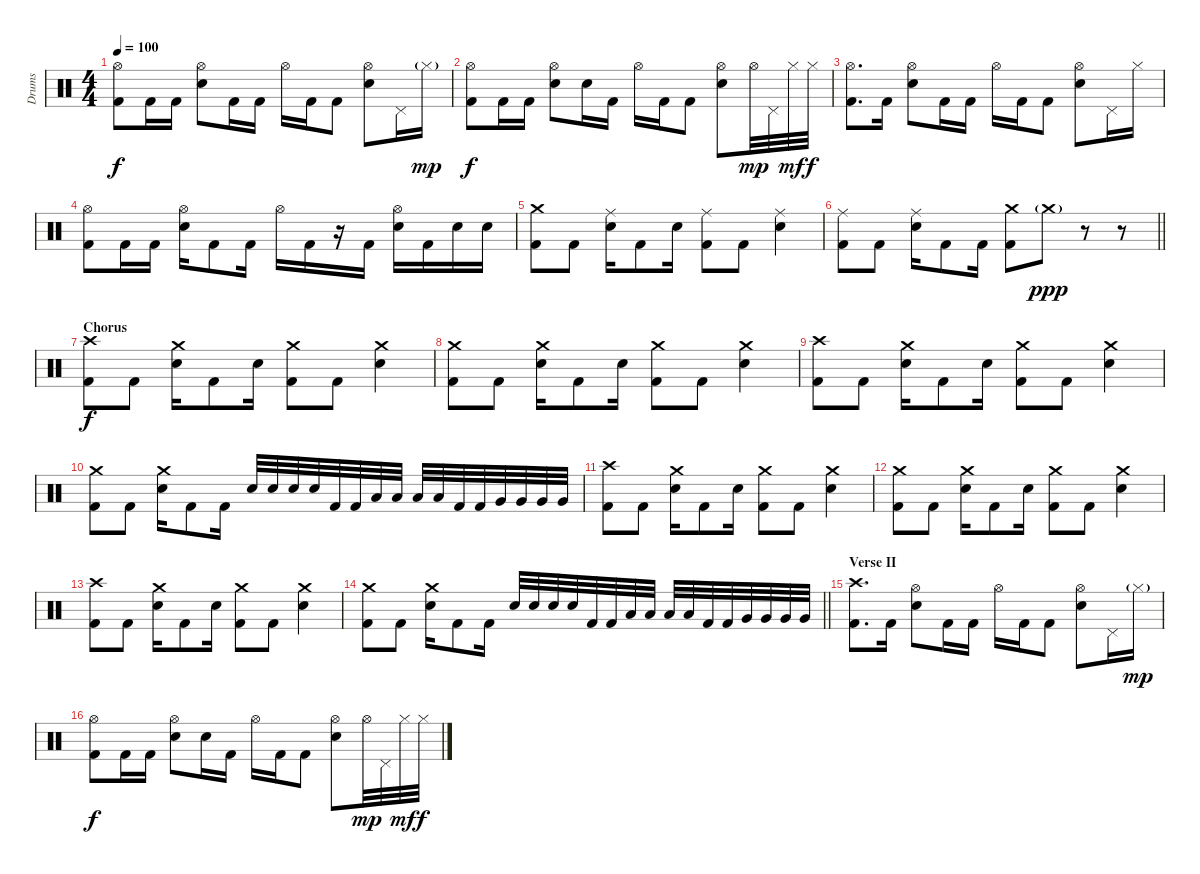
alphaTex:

\track ("Drums" "Drums") {instrument percussion}
\staff {score}
\articulation defaults
\ts (4 4)
\tempo 100
\clef neutral
\ks c
("Hi-Hat (open)" "Kick (hit) 2").8{dy f} "Kick (hit) 2".16 "Kick (hit) 2".16 ("Hi-Hat (open)" "Electric Snare (hit)").8 "Kick (hit) 2".16 "Kick (hit) 2".16 "Hi-Hat (open)".16 "Kick (hit) 2".16 "Kick (hit) 2".8 ("Hi-Hat (open)" "Electric Snare (hit)").8 "Pedal Hi-Hat (hit)".16 "Hi-Hat (closed)"{g}.16{dy mp} |
("Hi-Hat (open)" "Kick (hit) 2").8{dy f} "Kick (hit) 2".16 "Kick (hit) 2".16 ("Hi-Hat (open)" "Electric Snare (hit)").8 "Electric Snare (hit)".16 "Kick (hit) 2".16 "Hi-Hat (open)".16 "Kick (hit) 2".16 "Kick (hit) 2".8 ("Hi-Hat (open)" "Electric Snare (hit)").8 "Hi-Hat (open)".32{dy mp} "Pedal Hi-Hat (hit)".32 "Hi-Hat (closed)".32{dy mf} "Hi-Hat (closed)".32{dy f} |
("Hi-Hat (open)" "Kick (hit) 2").8{d} "Kick (hit) 2".16 ("Hi-Hat (open)" "Electric Snare (hit)").8 "Kick (hit) 2".16 "Kick (hit) 2".16 "Hi-Hat (open)".16 "Kick (hit) 2".16 "Kick (hit) 2".8 ("Hi-Hat (open)" "Electric Snare (hit)").8 "Pedal Hi-Hat (hit)".16 "Hi-Hat (closed)".16 |
("Hi-Hat (open)" "Kick (hit) 2").8 "Kick (hit) 2".16 "Kick (hit) 2".16 ("Hi-Hat (open)" "Electric Snare (hit)").16 "Kick (hit) 2".8 "Kick (hit) 2".16 "Hi-Hat (open)".16 "Kick (hit) 2".16 r.16 "Kick (hit) 2".16 ("Hi-Hat (open)" "Electric Snare (hit)").16 "Kick (hit) 2".16 "Electric Snare (hit)".16 "Electric Snare (hit)".16 |
("Crash medium (hit)" "Kick (hit) 2").8 "Kick (hit) 2".8 ("Ride (middle)" "Electric Snare (hit)").16 "Kick (hit) 2".8 "Electric Snare (hit)".16 ("Ride (middle)" "Kick (hit) 2").8 "Kick (hit) 2".8 ("Ride (middle)" "Electric Snare (hit)").4 |
\barLineRight lightlight
("Ride (middle)" "Kick (hit) 2").8 "Kick (hit) 2".8 ("Ride (middle)" "Electric Snare (hit)").16 "Kick (hit) 2".8 "Kick (hit) 2".16 ("Crash medium (hit)" "Kick (hit) 2").8 "Crash medium (hit)"{g}.8{dy ppp} r.8 r.8 |
\section ("" "Chorus")
("Crash high (hit)" "Kick (hit) 2").8{dy f} "Kick (hit) 2".8 ("Crash medium (hit)" "Electric Snare (hit)").16 "Kick (hit) 2".8 "Electric Snare (hit)".16 ("Crash medium (hit)" "Kick (hit) 2").8 "Kick (hit) 2".8 ("Crash medium (hit)" "Electric Snare (hit)").4 |
("Crash medium (hit)" "Kick (hit) 2").8 "Kick (hit) 2".8 ("Crash medium (hit)" "Electric Snare (hit)").16 "Kick (hit) 2".8 "Electric Snare (hit)".16 ("Crash medium (hit)" "Kick (hit) 2").8 "Kick (hit) 2".8 ("Crash medium (hit)" "Electric Snare (hit)").4 |
("Crash high (hit)" "Kick (hit) 2").8 "Kick (hit) 2".8 ("Crash medium (hit)" "Electric Snare (hit)").16 "Kick (hit) 2".8 "Electric Snare (hit)".16 ("Crash medium (hit)" "Kick (hit) 2").8 "Kick (hit) 2".8 ("Crash medium (hit)" "Electric Snare (hit)").4 |
("Crash medium (hit)" "Kick (hit) 2").8 "Kick (hit) 2".8 ("Crash medium (hit)" "Electric Snare (hit)").16 "Kick (hit) 2".8 "Kick (hit) 2".16 "Electric Snare (hit)".32 "Electric Snare (hit)".32 "Electric Snare (hit)".32 "Electric Snare (hit)".32 "Kick (hit) 2".32 "Kick (hit) 2".32 "Low Tom (hit)".32 "Low Tom (hit)".32 "Low Tom (hit)".32 "Low Tom (hit)".32 "Kick (hit) 2".32 "Kick (hit) 2".32 "Very Low Tom (hit)".32 "Very Low Tom (hit)".32 "Very Low Tom (hit)".32 "Very Low Tom (hit)".32 |
("Crash high (hit)" "Kick (hit) 2").8 "Kick (hit) 2".8 ("Crash medium (hit)" "Electric Snare (hit)").16 "Kick (hit) 2".8 "Electric Snare (hit)".16 ("Crash medium (hit)" "Kick (hit) 2").8 "Kick (hit) 2".8 ("Crash medium (hit)" "Electric Snare (hit)").4 |
("Crash medium (hit)" "Kick (hit) 2").8 "Kick (hit) 2".8 ("Crash medium (hit)" "Electric Snare (hit)").16 "Kick (hit) 2".8 "Electric Snare (hit)".16 ("Crash medium (hit)" "Kick (hit) 2").8 "Kick (hit) 2".8 ("Crash medium (hit)" "Electric Snare (hit)").4 |
("Crash high (hit)" "Kick (hit) 2").8 "Kick (hit) 2".8 ("Crash medium (hit)" "Electric Snare (hit)").16 "Kick (hit) 2".8 "Electric Snare (hit)".16 ("Crash medium (hit)" "Kick (hit) 2").8 "Kick (hit) 2".8 ("Crash medium (hit)" "Electric Snare (hit)").4 |
\barLineRight lightlight
("Crash medium (hit)" "Kick (hit) 2").8 "Kick (hit) 2".8 ("Crash medium (hit)" "Electric Snare (hit)").16 "Kick (hit) 2".8 "Kick (hit) 2".16 "Electric Snare (hit)".32 "Electric Snare (hit)".32 "Electric Snare (hit)".32 "Electric Snare (hit)".32 "Kick (hit) 2".32 "Kick (hit) 2".32 "Low Tom (hit)".32 "Low Tom (hit)".32 "Low Tom (hit)".32 "Low Tom (hit)".32 "Kick (hit) 2".32 "Kick (hit) 2".32 "Very Low Tom (hit)".32 "Very Low Tom (hit)".32 "Very Low Tom (hit)".32 "Very Low Tom (hit)".32 |
\section ("" "Verse II")
("Crash high (hit)" "Kick (hit) 2").8{d} "Kick (hit) 2".16 ("Hi-Hat (open)" "Electric Snare (hit)").8 "Kick (hit) 2".16 "Kick (hit) 2".16 "Hi-Hat (open)".16 "Kick (hit) 2".16 "Kick (hit) 2".8 ("Hi-Hat (open)" "Electric Snare (hit)").8 "Pedal Hi-Hat (hit)".16 "Hi-Hat (closed)"{g}.16{dy mp} |
("Hi-Hat (open)" "Kick (hit) 2").8{dy f} "Kick (hit) 2".16 "Kick (hit) 2".16 ("Hi-Hat (open)" "Electric Snare (hit)").8 "Electric Snare (hit)".16 "Kick (hit) 2".16 "Hi-Hat (open)".16 "Kick (hit) 2".16 "Kick (hit) 2".8 ("Hi-Hat (open)" "Electric Snare (hit)").8 "Hi-Hat (open)".32{dy mp} "Pedal Hi-Hat (hit)".32 "Hi-Hat (closed)".32{dy mf} "Hi-Hat (closed)".32{dy f}
